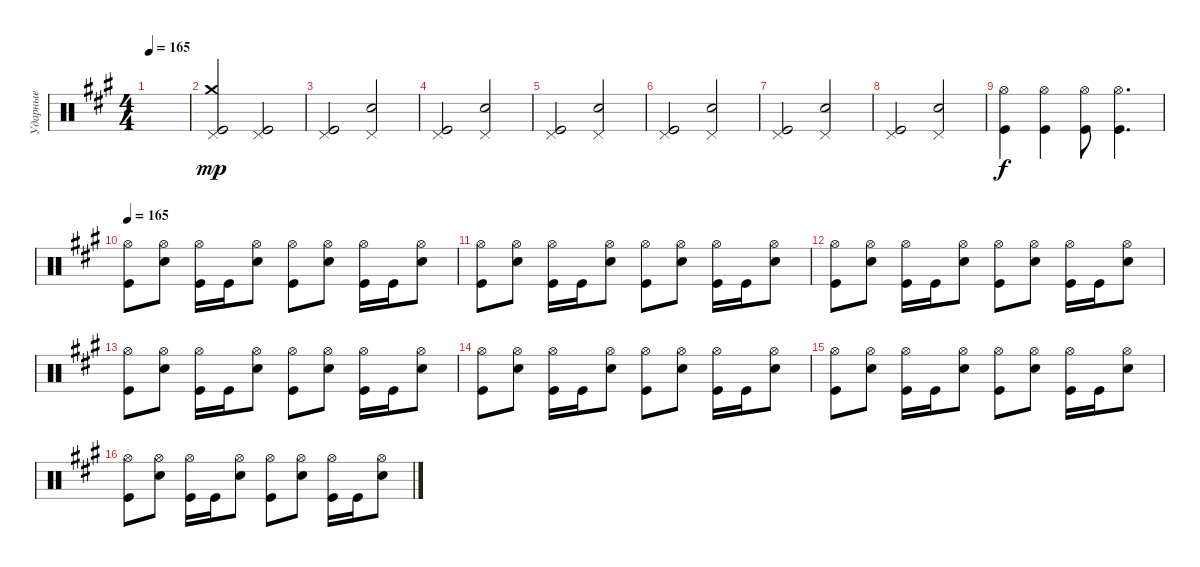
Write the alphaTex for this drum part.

\track ("Ударные" "Ударные") {instrument percussion}
\staff {score}
\articulation defaults
\ts (4 4)
\tempo 165
\clef neutral
\ks f#minor
|
("Kick (hit)" "Crash medium (hit)" "Pedal Hi-Hat (hit)").2{dy mp} ("Kick (hit)" "Pedal Hi-Hat (hit)").2 |
("Kick (hit)" "Pedal Hi-Hat (hit)").2 ("Snare (hit) 2" "Pedal Hi-Hat (hit)").2 |
("Kick (hit)" "Pedal Hi-Hat (hit)").2 ("Snare (hit) 2" "Pedal Hi-Hat (hit)").2 |
("Kick (hit)" "Pedal Hi-Hat (hit)").2 ("Snare (hit) 2" "Pedal Hi-Hat (hit)").2 |
("Kick (hit)" "Pedal Hi-Hat (hit)").2 ("Snare (hit) 2" "Pedal Hi-Hat (hit)").2 |
("Kick (hit)" "Pedal Hi-Hat (hit)").2 ("Snare (hit) 2" "Pedal Hi-Hat (hit)").2 |
("Kick (hit)" "Pedal Hi-Hat (hit)").2 ("Snare (hit) 2" "Pedal Hi-Hat (hit)").2 |
("Kick (hit)" "Hi-Hat (open)").4{dy f} ("Kick (hit)" "Hi-Hat (open)").4 ("Kick (hit)" "Hi-Hat (open)").8 ("Kick (hit)" "Hi-Hat (open)").4{d} |
\tempo 165
("Kick (hit)" "Hi-Hat (open)").8 ("Snare (hit) 2" "Hi-Hat (open)").8 ("Kick (hit)" "Hi-Hat (open)").16 "Kick (hit)".16 ("Snare (hit) 2" "Hi-Hat (open)").8 ("Kick (hit)" "Hi-Hat (open)").8 ("Snare (hit) 2" "Hi-Hat (open)").8 ("Kick (hit)" "Hi-Hat (open)").16 "Kick (hit)".16 ("Snare (hit) 2" "Hi-Hat (open)").8 |
("Kick (hit)" "Hi-Hat (open)").8 ("Snare (hit) 2" "Hi-Hat (open)").8 ("Kick (hit)" "Hi-Hat (open)").16 "Kick (hit)".16 ("Snare (hit) 2" "Hi-Hat (open)").8 ("Kick (hit)" "Hi-Hat (open)").8 ("Snare (hit) 2" "Hi-Hat (open)").8 ("Kick (hit)" "Hi-Hat (open)").16 "Kick (hit)".16 ("Snare (hit) 2" "Hi-Hat (open)").8 |
("Kick (hit)" "Hi-Hat (open)").8 ("Snare (hit) 2" "Hi-Hat (open)").8 ("Kick (hit)" "Hi-Hat (open)").16 "Kick (hit)".16 ("Snare (hit) 2" "Hi-Hat (open)").8 ("Kick (hit)" "Hi-Hat (open)").8 ("Snare (hit) 2" "Hi-Hat (open)").8 ("Kick (hit)" "Hi-Hat (open)").16 "Kick (hit)".16 ("Snare (hit) 2" "Hi-Hat (open)").8 |
("Kick (hit)" "Hi-Hat (open)").8 ("Snare (hit) 2" "Hi-Hat (open)").8 ("Kick (hit)" "Hi-Hat (open)").16 "Kick (hit)".16 ("Snare (hit) 2" "Hi-Hat (open)").8 ("Kick (hit)" "Hi-Hat (open)").8 ("Snare (hit) 2" "Hi-Hat (open)").8 ("Kick (hit)" "Hi-Hat (open)").16 "Kick (hit)".16 ("Snare (hit) 2" "Hi-Hat (open)").8 |
("Kick (hit)" "Hi-Hat (open)").8 ("Snare (hit) 2" "Hi-Hat (open)").8 ("Kick (hit)" "Hi-Hat (open)").16 "Kick (hit)".16 ("Snare (hit) 2" "Hi-Hat (open)").8 ("Kick (hit)" "Hi-Hat (open)").8 ("Snare (hit) 2" "Hi-Hat (open)").8 ("Kick (hit)" "Hi-Hat (open)").16 "Kick (hit)".16 ("Snare (hit) 2" "Hi-Hat (open)").8 |
("Kick (hit)" "Hi-Hat (open)").8 ("Snare (hit) 2" "Hi-Hat (open)").8 ("Kick (hit)" "Hi-Hat (open)").16 "Kick (hit)".16 ("Snare (hit) 2" "Hi-Hat (open)").8 ("Kick (hit)" "Hi-Hat (open)").8 ("Snare (hit) 2" "Hi-Hat (open)").8 ("Kick (hit)" "Hi-Hat (open)").16 "Kick (hit)".16 ("Snare (hit) 2" "Hi-Hat (open)").8 |
("Kick (hit)" "Hi-Hat (open)").8 ("Snare (hit) 2" "Hi-Hat (open)").8 ("Kick (hit)" "Hi-Hat (open)").16 "Kick (hit)".16 ("Snare (hit) 2" "Hi-Hat (open)").8 ("Kick (hit)" "Hi-Hat (open)").8 ("Snare (hit) 2" "Hi-Hat (open)").8 ("Kick (hit)" "Hi-Hat (open)").16 "Kick (hit)".16 ("Snare (hit) 2" "Hi-Hat (open)").8
